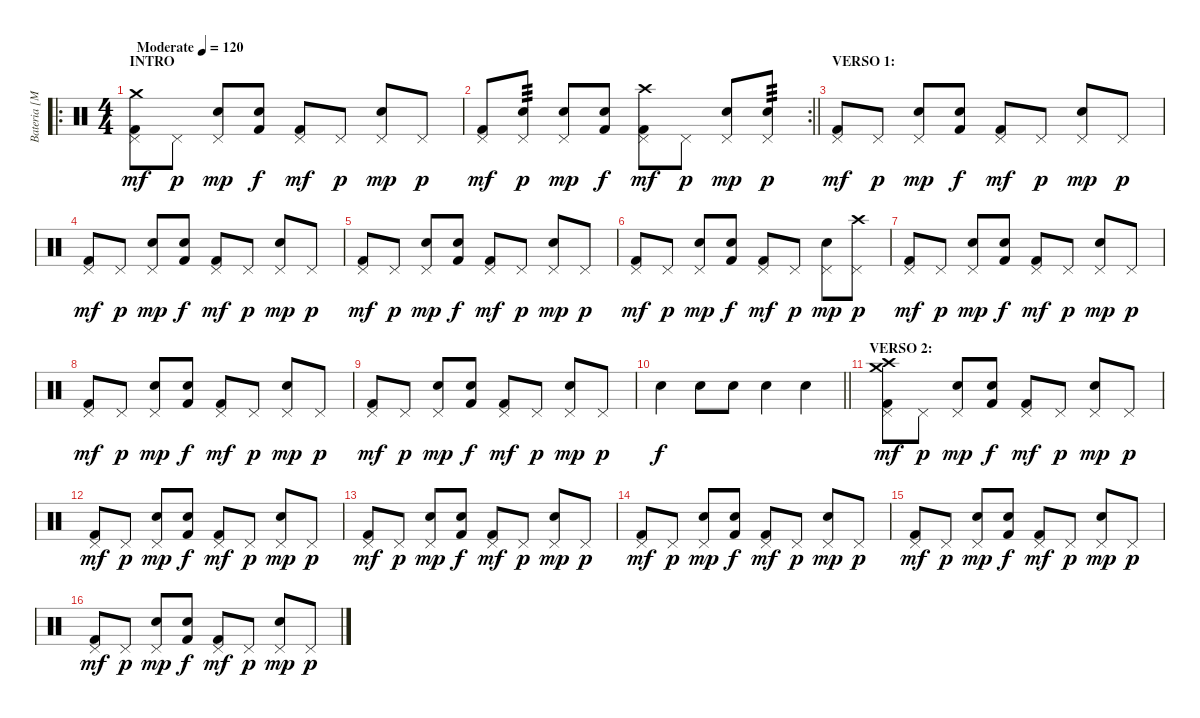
\track ("Bateria [Mauricio Basualto]" "Bateria [M") {instrument percussion}
\staff {score}
\articulation defaults
\ro
\ts (4 4)
\section ("" "INTRO")
\tempo (120 "Moderate")
\clef neutral
\ks c
("Kick (hit) 2" "Pedal Hi-Hat (hit)" "Crash medium (hit)").8{dy mf} "Pedal Hi-Hat (hit)".8{dy p} ("Electric Snare (hit)" "Pedal Hi-Hat (hit)").8{dy mp} ("Electric Snare (hit)" "Kick (hit) 2").8{dy f} ("Kick (hit) 2" "Pedal Hi-Hat (hit)").8{dy mf} "Pedal Hi-Hat (hit)".8{dy p} ("Electric Snare (hit)" "Pedal Hi-Hat (hit)").8{dy mp} "Pedal Hi-Hat (hit)".8{dy p} |
\rc 2
\barLineRight lightlight
("Kick (hit) 2" "Pedal Hi-Hat (hit)").8{dy mf} ("Pedal Hi-Hat (hit)" "Electric Snare (hit)").8{tp 3 dy p} ("Electric Snare (hit)" "Pedal Hi-Hat (hit)").8{dy mp} ("Electric Snare (hit)" "Kick (hit) 2").8{dy f} ("Kick (hit) 2" "Pedal Hi-Hat (hit)" "Crash high (hit)").8{dy mf} "Pedal Hi-Hat (hit)".8{dy p} ("Electric Snare (hit)" "Pedal Hi-Hat (hit)").8{dy mp} ("Pedal Hi-Hat (hit)" "Electric Snare (hit)").8{tp 3 dy p} |
\section ("" "VERSO 1:")
("Kick (hit) 2" "Pedal Hi-Hat (hit)").8{dy mf} "Pedal Hi-Hat (hit)".8{dy p} ("Electric Snare (hit)" "Pedal Hi-Hat (hit)").8{dy mp} ("Electric Snare (hit)" "Kick (hit) 2").8{dy f} ("Kick (hit) 2" "Pedal Hi-Hat (hit)").8{dy mf} "Pedal Hi-Hat (hit)".8{dy p} ("Electric Snare (hit)" "Pedal Hi-Hat (hit)").8{dy mp} "Pedal Hi-Hat (hit)".8{dy p} |
("Kick (hit) 2" "Pedal Hi-Hat (hit)").8{dy mf} "Pedal Hi-Hat (hit)".8{dy p} ("Electric Snare (hit)" "Pedal Hi-Hat (hit)").8{dy mp} ("Electric Snare (hit)" "Kick (hit) 2").8{dy f} ("Kick (hit) 2" "Pedal Hi-Hat (hit)").8{dy mf} "Pedal Hi-Hat (hit)".8{dy p} ("Electric Snare (hit)" "Pedal Hi-Hat (hit)").8{dy mp} "Pedal Hi-Hat (hit)".8{dy p} |
("Kick (hit) 2" "Pedal Hi-Hat (hit)").8{dy mf} "Pedal Hi-Hat (hit)".8{dy p} ("Electric Snare (hit)" "Pedal Hi-Hat (hit)").8{dy mp} ("Electric Snare (hit)" "Kick (hit) 2").8{dy f} ("Kick (hit) 2" "Pedal Hi-Hat (hit)").8{dy mf} "Pedal Hi-Hat (hit)".8{dy p} ("Electric Snare (hit)" "Pedal Hi-Hat (hit)").8{dy mp} "Pedal Hi-Hat (hit)".8{dy p} |
("Kick (hit) 2" "Pedal Hi-Hat (hit)").8{dy mf} "Pedal Hi-Hat (hit)".8{dy p} ("Electric Snare (hit)" "Pedal Hi-Hat (hit)").8{dy mp} ("Electric Snare (hit)" "Kick (hit) 2").8{dy f} ("Kick (hit) 2" "Pedal Hi-Hat (hit)").8{dy mf} "Pedal Hi-Hat (hit)".8{dy p} ("Electric Snare (hit)" "Pedal Hi-Hat (hit)").8{dy mp} ("Pedal Hi-Hat (hit)" "Crash high (hit)").8{dy p} |
("Kick (hit) 2" "Pedal Hi-Hat (hit)").8{dy mf} "Pedal Hi-Hat (hit)".8{dy p} ("Electric Snare (hit)" "Pedal Hi-Hat (hit)").8{dy mp} ("Electric Snare (hit)" "Kick (hit) 2").8{dy f} ("Kick (hit) 2" "Pedal Hi-Hat (hit)").8{dy mf} "Pedal Hi-Hat (hit)".8{dy p} ("Electric Snare (hit)" "Pedal Hi-Hat (hit)").8{dy mp} "Pedal Hi-Hat (hit)".8{dy p} |
("Kick (hit) 2" "Pedal Hi-Hat (hit)").8{dy mf} "Pedal Hi-Hat (hit)".8{dy p} ("Electric Snare (hit)" "Pedal Hi-Hat (hit)").8{dy mp} ("Electric Snare (hit)" "Kick (hit) 2").8{dy f} ("Kick (hit) 2" "Pedal Hi-Hat (hit)").8{dy mf} "Pedal Hi-Hat (hit)".8{dy p} ("Electric Snare (hit)" "Pedal Hi-Hat (hit)").8{dy mp} "Pedal Hi-Hat (hit)".8{dy p} |
("Kick (hit) 2" "Pedal Hi-Hat (hit)").8{dy mf} "Pedal Hi-Hat (hit)".8{dy p} ("Electric Snare (hit)" "Pedal Hi-Hat (hit)").8{dy mp} ("Electric Snare (hit)" "Kick (hit) 2").8{dy f} ("Kick (hit) 2" "Pedal Hi-Hat (hit)").8{dy mf} "Pedal Hi-Hat (hit)".8{dy p} ("Electric Snare (hit)" "Pedal Hi-Hat (hit)").8{dy mp} "Pedal Hi-Hat (hit)".8{dy p} |
\barLineRight lightlight "Electric Snare (hit)".4{dy f} "Electric Snare (hit)".8 "Electric Snare (hit)".8 "Electric Snare (hit)".4 "Electric Snare (hit)".4
|
\section ("" "VERSO 2:")
("Kick (hit) 2" "Pedal Hi-Hat (hit)" "Crash high (hit)" "Crash medium (hit)").8{dy mf} "Pedal Hi-Hat (hit)".8{dy p} ("Electric Snare (hit)" "Pedal Hi-Hat (hit)").8{dy mp} ("Electric Snare (hit)" "Kick (hit) 2").8{dy f} ("Kick (hit) 2" "Pedal Hi-Hat (hit)").8{dy mf} "Pedal Hi-Hat (hit)".8{dy p} ("Electric Snare (hit)" "Pedal Hi-Hat (hit)").8{dy mp} "Pedal Hi-Hat (hit)".8{dy p} |
("Kick (hit) 2" "Pedal Hi-Hat (hit)").8{dy mf} "Pedal Hi-Hat (hit)".8{dy p} ("Electric Snare (hit)" "Pedal Hi-Hat (hit)").8{dy mp} ("Electric Snare (hit)" "Kick (hit) 2").8{dy f} ("Kick (hit) 2" "Pedal Hi-Hat (hit)").8{dy mf} "Pedal Hi-Hat (hit)".8{dy p} ("Electric Snare (hit)" "Pedal Hi-Hat (hit)").8{dy mp} "Pedal Hi-Hat (hit)".8{dy p} |
("Kick (hit) 2" "Pedal Hi-Hat (hit)").8{dy mf} "Pedal Hi-Hat (hit)".8{dy p} ("Electric Snare (hit)" "Pedal Hi-Hat (hit)").8{dy mp} ("Electric Snare (hit)" "Kick (hit) 2").8{dy f} ("Kick (hit) 2" "Pedal Hi-Hat (hit)").8{dy mf} "Pedal Hi-Hat (hit)".8{dy p} ("Electric Snare (hit)" "Pedal Hi-Hat (hit)").8{dy mp} "Pedal Hi-Hat (hit)".8{dy p} |
("Kick (hit) 2" "Pedal Hi-Hat (hit)").8{dy mf} "Pedal Hi-Hat (hit)".8{dy p} ("Electric Snare (hit)" "Pedal Hi-Hat (hit)").8{dy mp} ("Electric Snare (hit)" "Kick (hit) 2").8{dy f} ("Kick (hit) 2" "Pedal Hi-Hat (hit)").8{dy mf} "Pedal Hi-Hat (hit)".8{dy p} ("Electric Snare (hit)" "Pedal Hi-Hat (hit)").8{dy mp} "Pedal Hi-Hat (hit)".8{dy p} |
("Kick (hit) 2" "Pedal Hi-Hat (hit)").8{dy mf} "Pedal Hi-Hat (hit)".8{dy p} ("Electric Snare (hit)" "Pedal Hi-Hat (hit)").8{dy mp} ("Electric Snare (hit)" "Kick (hit) 2").8{dy f} ("Kick (hit) 2" "Pedal Hi-Hat (hit)").8{dy mf} "Pedal Hi-Hat (hit)".8{dy p} ("Electric Snare (hit)" "Pedal Hi-Hat (hit)").8{dy mp} "Pedal Hi-Hat (hit)".8{dy p} |
("Kick (hit) 2" "Pedal Hi-Hat (hit)").8{dy mf} "Pedal Hi-Hat (hit)".8{dy p} ("Electric Snare (hit)" "Pedal Hi-Hat (hit)").8{dy mp} ("Electric Snare (hit)" "Kick (hit) 2").8{dy f} ("Kick (hit) 2" "Pedal Hi-Hat (hit)").8{dy mf} "Pedal Hi-Hat (hit)".8{dy p} ("Electric Snare (hit)" "Pedal Hi-Hat (hit)").8{dy mp} "Pedal Hi-Hat (hit)".8{dy p}
